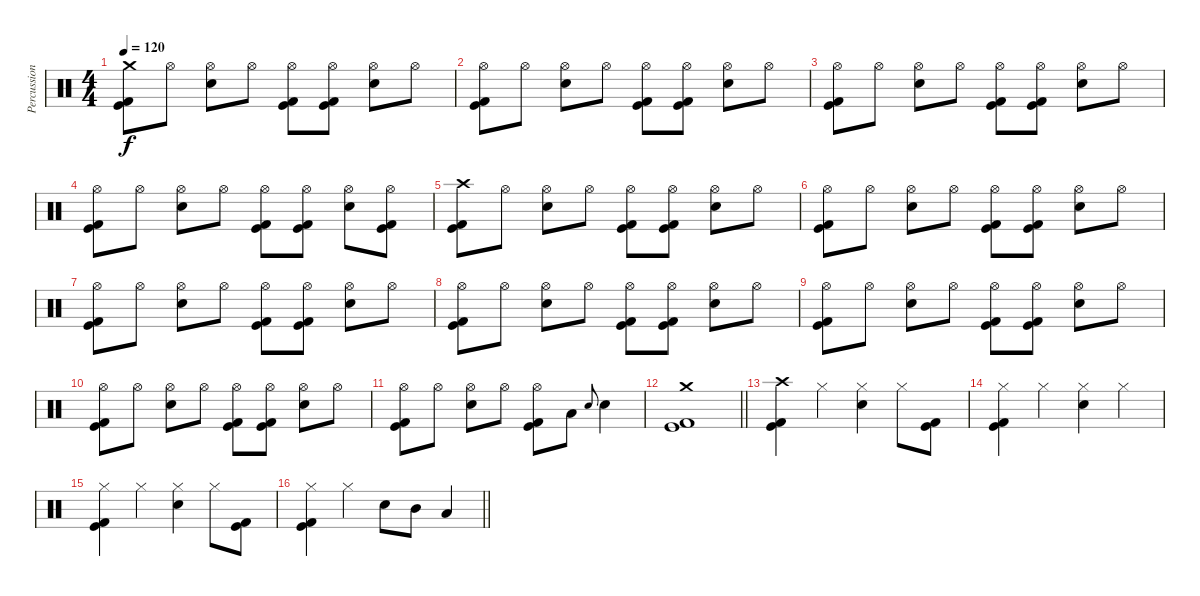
\track ("Percussion" "Percussion") {instrument percussion}
\staff {score}
\articulation defaults
\ts (4 4)
\tempo 120
\clef neutral
\ks c
("Crash medium (hit)" "Kick (hit)" "Kick (hit) 2").8{dy f} "Hi-Hat (open)".8 ("Hi-Hat (open)" "Electric Snare (hit)").8 "Hi-Hat (open)".8 ("Hi-Hat (open)" "Kick (hit)" "Kick (hit) 2").8 ("Hi-Hat (open)" "Kick (hit)" "Kick (hit) 2").8 ("Hi-Hat (open)" "Electric Snare (hit)").8 "Hi-Hat (open)".8 |
("Hi-Hat (open)" "Kick (hit)" "Kick (hit) 2").8 "Hi-Hat (open)".8 ("Hi-Hat (open)" "Electric Snare (hit)").8 "Hi-Hat (open)".8 ("Hi-Hat (open)" "Kick (hit)" "Kick (hit) 2").8 ("Hi-Hat (open)" "Kick (hit)" "Kick (hit) 2").8 ("Hi-Hat (open)" "Electric Snare (hit)").8 "Hi-Hat (open)".8 |
("Hi-Hat (open)" "Kick (hit)" "Kick (hit) 2").8 "Hi-Hat (open)".8 ("Hi-Hat (open)" "Electric Snare (hit)").8 "Hi-Hat (open)".8 ("Hi-Hat (open)" "Kick (hit)" "Kick (hit) 2").8 ("Hi-Hat (open)" "Kick (hit)" "Kick (hit) 2").8 ("Hi-Hat (open)" "Electric Snare (hit)").8 "Hi-Hat (open)".8 |
("Hi-Hat (open)" "Kick (hit)" "Kick (hit) 2").8 "Hi-Hat (open)".8 ("Hi-Hat (open)" "Electric Snare (hit)").8 "Hi-Hat (open)".8 ("Hi-Hat (open)" "Kick (hit)" "Kick (hit) 2").8 ("Hi-Hat (open)" "Kick (hit)" "Kick (hit) 2").8 ("Hi-Hat (open)" "Electric Snare (hit)").8 ("Hi-Hat (open)" "Kick (hit)" "Kick (hit) 2").8 |
("Crash high (hit)" "Kick (hit)" "Kick (hit) 2").8 "Hi-Hat (open)".8 ("Hi-Hat (open)" "Electric Snare (hit)").8 "Hi-Hat (open)".8 ("Hi-Hat (open)" "Kick (hit)" "Kick (hit) 2").8 ("Hi-Hat (open)" "Kick (hit)" "Kick (hit) 2").8 ("Hi-Hat (open)" "Electric Snare (hit)").8 "Hi-Hat (open)".8 |
("Hi-Hat (open)" "Kick (hit)" "Kick (hit) 2").8 "Hi-Hat (open)".8 ("Hi-Hat (open)" "Electric Snare (hit)").8 "Hi-Hat (open)".8 ("Hi-Hat (open)" "Kick (hit)" "Kick (hit) 2").8 ("Hi-Hat (open)" "Kick (hit)" "Kick (hit) 2").8 ("Hi-Hat (open)" "Electric Snare (hit)").8 "Hi-Hat (open)".8 |
("Hi-Hat (open)" "Kick (hit)" "Kick (hit) 2").8 "Hi-Hat (open)".8 ("Hi-Hat (open)" "Electric Snare (hit)").8 "Hi-Hat (open)".8 ("Hi-Hat (open)" "Kick (hit)" "Kick (hit) 2").8 ("Hi-Hat (open)" "Kick (hit)" "Kick (hit) 2").8 ("Hi-Hat (open)" "Electric Snare (hit)").8 "Hi-Hat (open)".8 |
("Hi-Hat (open)" "Kick (hit)" "Kick (hit) 2").8 "Hi-Hat (open)".8 ("Hi-Hat (open)" "Electric Snare (hit)").8 "Hi-Hat (open)".8 ("Hi-Hat (open)" "Kick (hit)" "Kick (hit) 2").8 ("Hi-Hat (open)" "Kick (hit)" "Kick (hit) 2").8 ("Hi-Hat (open)" "Electric Snare (hit)").8 "Hi-Hat (open)".8 |
("Hi-Hat (open)" "Kick (hit)" "Kick (hit) 2").8 "Hi-Hat (open)".8 ("Hi-Hat (open)" "Electric Snare (hit)").8 "Hi-Hat (open)".8 ("Hi-Hat (open)" "Kick (hit)" "Kick (hit) 2").8 ("Hi-Hat (open)" "Kick (hit)" "Kick (hit) 2").8 ("Hi-Hat (open)" "Electric Snare (hit)").8 "Hi-Hat (open)".8 |
("Hi-Hat (open)" "Kick (hit)" "Kick (hit) 2").8 "Hi-Hat (open)".8 ("Hi-Hat (open)" "Electric Snare (hit)").8 "Hi-Hat (open)".8 ("Hi-Hat (open)" "Kick (hit)" "Kick (hit) 2").8 ("Hi-Hat (open)" "Kick (hit)" "Kick (hit) 2").8 ("Hi-Hat (open)" "Electric Snare (hit)").8 "Hi-Hat (open)".8 |
("Hi-Hat (open)" "Kick (hit)" "Kick (hit) 2").8 "Hi-Hat (open)".8 ("Hi-Hat (open)" "Electric Snare (hit)").8 "Hi-Hat (open)".8 ("Hi-Hat (open)" "Kick (hit)" "Kick (hit) 2").8 "Low Tom (hit)".8 "Electric Snare (hit)".8{gr onbeat} "Electric Snare (hit)".4 |
\barLineRight lightlight
("Crash medium (hit)" "Kick (hit)" "Kick (hit) 2").1 |
\section ("" "")
("Crash high (hit)" "Kick (hit)" "Kick (hit) 2").4 "Hi-Hat (closed)".4 ("Hi-Hat (closed)" "Electric Snare (hit)").4 "Hi-Hat (closed)".8 ("Kick (hit)" "Kick (hit) 2").8 |
("Hi-Hat (closed)" "Kick (hit)" "Kick (hit) 2").4 "Hi-Hat (closed)".4 ("Hi-Hat (closed)" "Electric Snare (hit)").4 "Hi-Hat (closed)".4 |
("Hi-Hat (closed)" "Kick (hit)" "Kick (hit) 2").4 "Hi-Hat (closed)".4 ("Hi-Hat (closed)" "Electric Snare (hit)").4 "Hi-Hat (closed)".8 ("Kick (hit)" "Kick (hit) 2").8 |
\barLineRight lightlight
("Hi-Hat (closed)" "Kick (hit)" "Kick (hit) 2").4 "Hi-Hat (closed)".4 "Electric Snare (hit)".8 "Mid Tom (hit)".8 "Low Tom (hit)".4
